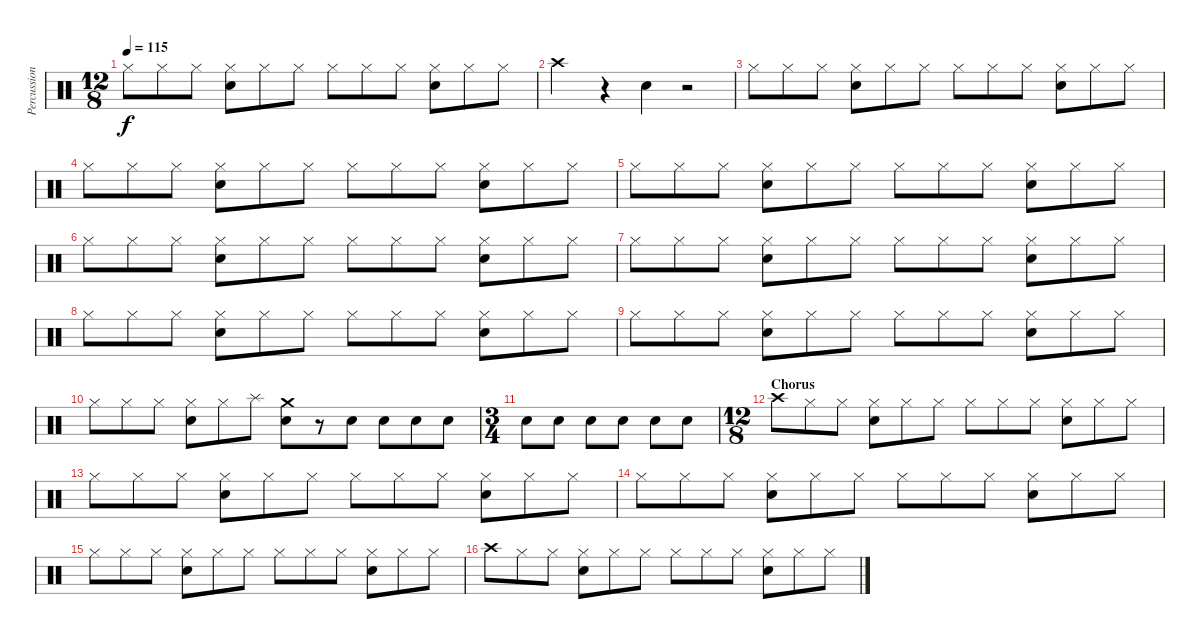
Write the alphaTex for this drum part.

\track ("Percussions" "Percussion") {instrument percussion}
\staff {score}
\articulation defaults
\ts (12 8)
\tempo 115
\clef neutral
\ks c "Hi-Hat (closed)".8{dy f} "Hi-Hat (closed)".8 "Hi-Hat (closed)".8
("Hi-Hat (closed)" "Electric Snare (hit)").8 "Hi-Hat (closed)".8 "Hi-Hat (closed)".8 "Hi-Hat (closed)".8 "Hi-Hat (closed)".8 "Hi-Hat (closed)".8 ("Hi-Hat (closed)" "Electric Snare (hit)").8 "Hi-Hat (closed)".8 "Hi-Hat (closed)".8 |
"Crash high (hit)".2 r.4 "Snare (hit) 2".4 r.2 |
"Hi-Hat (closed)".8 "Hi-Hat (closed)".8 "Hi-Hat (closed)".8 ("Hi-Hat (closed)" "Electric Snare (hit)").8 "Hi-Hat (closed)".8 "Hi-Hat (closed)".8 "Hi-Hat (closed)".8 "Hi-Hat (closed)".8 "Hi-Hat (closed)".8 ("Hi-Hat (closed)" "Electric Snare (hit)").8 "Hi-Hat (closed)".8 "Hi-Hat (closed)".8 |
"Hi-Hat (closed)".8 "Hi-Hat (closed)".8 "Hi-Hat (closed)".8 ("Hi-Hat (closed)" "Electric Snare (hit)").8 "Hi-Hat (closed)".8 "Hi-Hat (closed)".8 "Hi-Hat (closed)".8 "Hi-Hat (closed)".8 "Hi-Hat (closed)".8 ("Hi-Hat (closed)" "Electric Snare (hit)").8 "Hi-Hat (closed)".8 "Hi-Hat (closed)".8 |
"Hi-Hat (closed)".8 "Hi-Hat (closed)".8 "Hi-Hat (closed)".8 ("Hi-Hat (closed)" "Electric Snare (hit)").8 "Hi-Hat (closed)".8 "Hi-Hat (closed)".8 "Hi-Hat (closed)".8 "Hi-Hat (closed)".8 "Hi-Hat (closed)".8 ("Hi-Hat (closed)" "Electric Snare (hit)").8 "Hi-Hat (closed)".8 "Hi-Hat (closed)".8 |
"Hi-Hat (closed)".8 "Hi-Hat (closed)".8 "Hi-Hat (closed)".8 ("Hi-Hat (closed)" "Electric Snare (hit)").8 "Hi-Hat (closed)".8 "Hi-Hat (closed)".8 "Hi-Hat (closed)".8 "Hi-Hat (closed)".8 "Hi-Hat (closed)".8 ("Hi-Hat (closed)" "Electric Snare (hit)").8 "Hi-Hat (closed)".8 "Hi-Hat (closed)".8 |
"Hi-Hat (closed)".8 "Hi-Hat (closed)".8 "Hi-Hat (closed)".8 ("Hi-Hat (closed)" "Electric Snare (hit)").8 "Hi-Hat (closed)".8 "Hi-Hat (closed)".8 "Hi-Hat (closed)".8 "Hi-Hat (closed)".8 "Hi-Hat (closed)".8 ("Hi-Hat (closed)" "Electric Snare (hit)").8 "Hi-Hat (closed)".8 "Hi-Hat (closed)".8 |
"Hi-Hat (closed)".8 "Hi-Hat (closed)".8 "Hi-Hat (closed)".8 ("Hi-Hat (closed)" "Electric Snare (hit)").8 "Hi-Hat (closed)".8 "Hi-Hat (closed)".8 "Hi-Hat (closed)".8 "Hi-Hat (closed)".8 "Hi-Hat (closed)".8 ("Hi-Hat (closed)" "Electric Snare (hit)").8 "Hi-Hat (closed)".8 "Hi-Hat (closed)".8 |
"Hi-Hat (closed)".8 "Hi-Hat (closed)".8 "Hi-Hat (closed)".8 ("Hi-Hat (closed)" "Electric Snare (hit)").8 "Hi-Hat (closed)".8 "Hi-Hat (closed)".8 "Hi-Hat (closed)".8 "Hi-Hat (closed)".8 "Hi-Hat (closed)".8 ("Hi-Hat (closed)" "Electric Snare (hit)").8 "Hi-Hat (closed)".8 "Hi-Hat (closed)".8 |
"Hi-Hat (closed)".8 "Hi-Hat (closed)".8 "Hi-Hat (closed)".8 ("Hi-Hat (closed)" "Electric Snare (hit)").8 "Hi-Hat (closed)".8 "Splash (hit)".8 ("Crash medium (hit)" "Electric Snare (hit)").8 r.8 "Snare (hit) 2".8 "Snare (hit) 2".8 "Snare (hit) 2".8 "Snare (hit) 2".8 |
\ts (3 4)
"Snare (hit) 2".8 "Snare (hit) 2".8 "Snare (hit) 2".8 "Snare (hit) 2".8 "Snare (hit) 2".8 "Snare (hit) 2".8 |
\ts (12 8)
\section ("" "Chorus")
"Crash high (hit)".8 "Hi-Hat (closed)".8 "Hi-Hat (closed)".8 ("Hi-Hat (closed)" "Electric Snare (hit)").8 "Hi-Hat (closed)".8 "Hi-Hat (closed)".8 "Hi-Hat (closed)".8 "Hi-Hat (closed)".8 "Hi-Hat (closed)".8 ("Hi-Hat (closed)" "Electric Snare (hit)").8 "Hi-Hat (closed)".8 "Hi-Hat (closed)".8 |
"Hi-Hat (closed)".8 "Hi-Hat (closed)".8 "Hi-Hat (closed)".8 ("Hi-Hat (closed)" "Electric Snare (hit)").8 "Hi-Hat (closed)".8 "Hi-Hat (closed)".8 "Hi-Hat (closed)".8 "Hi-Hat (closed)".8 "Hi-Hat (closed)".8 ("Hi-Hat (closed)" "Electric Snare (hit)").8 "Hi-Hat (closed)".8 "Hi-Hat (closed)".8 |
"Hi-Hat (closed)".8 "Hi-Hat (closed)".8 "Hi-Hat (closed)".8 ("Hi-Hat (closed)" "Electric Snare (hit)").8 "Hi-Hat (closed)".8 "Hi-Hat (closed)".8 "Hi-Hat (closed)".8 "Hi-Hat (closed)".8 "Hi-Hat (closed)".8 ("Hi-Hat (closed)" "Electric Snare (hit)").8 "Hi-Hat (closed)".8 "Hi-Hat (closed)".8 |
"Hi-Hat (closed)".8 "Hi-Hat (closed)".8 "Hi-Hat (closed)".8 ("Hi-Hat (closed)" "Electric Snare (hit)").8 "Hi-Hat (closed)".8 "Hi-Hat (closed)".8 "Hi-Hat (closed)".8 "Hi-Hat (closed)".8 "Hi-Hat (closed)".8 ("Hi-Hat (closed)" "Electric Snare (hit)").8 "Hi-Hat (closed)".8 "Hi-Hat (closed)".8 |
"Crash high (hit)".8 "Hi-Hat (closed)".8 "Hi-Hat (closed)".8 ("Hi-Hat (closed)" "Electric Snare (hit)").8 "Hi-Hat (closed)".8 "Hi-Hat (closed)".8 "Hi-Hat (closed)".8 "Hi-Hat (closed)".8 "Hi-Hat (closed)".8 ("Hi-Hat (closed)" "Electric Snare (hit)").8 "Hi-Hat (closed)".8 "Hi-Hat (closed)".8
